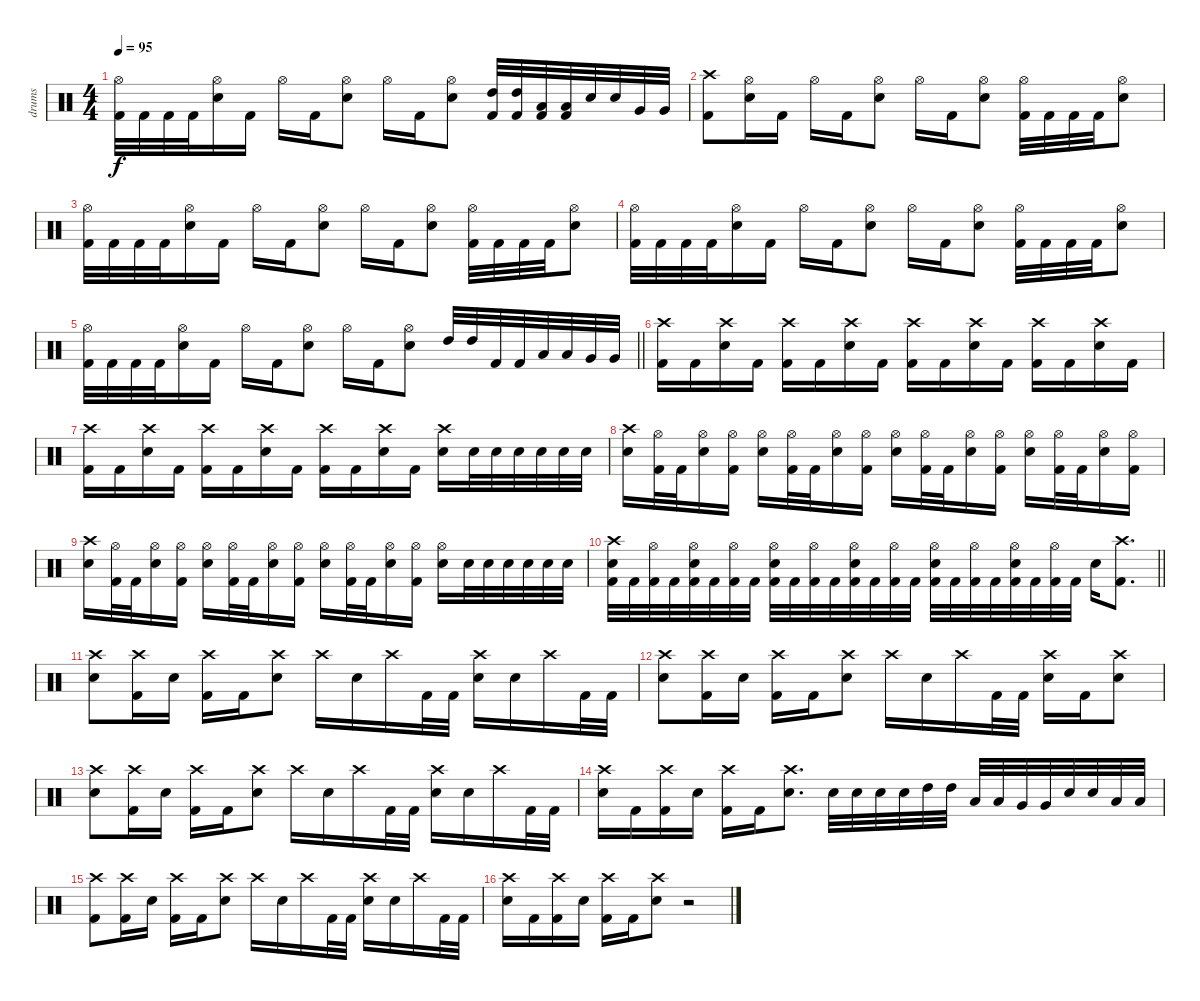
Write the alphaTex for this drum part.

\track ("drums" "drums") {instrument percussion}
\staff {score}
\articulation defaults
\ts (4 4)
\tempo 95
\clef neutral
\ks c
("Hi-Hat (open)" "Kick (hit) 2").32{dy f} "Kick (hit) 2".32 "Kick (hit) 2".32 "Kick (hit) 2".32 ("Hi-Hat (open)" "Electric Snare (hit)").16 "Kick (hit) 2".16 "Hi-Hat (open)".16 "Kick (hit) 2".16 ("Hi-Hat (open)" "Electric Snare (hit)").8 "Hi-Hat (open)".16 "Kick (hit) 2".16 ("Hi-Hat (open)" "Electric Snare (hit)").8 ("High Tom (hit)" "Kick (hit) 2").32 ("High Tom (hit)" "Kick (hit) 2").32 ("Low Tom (hit)" "Kick (hit) 2").32 ("Low Tom (hit)" "Kick (hit) 2").32 "Electric Snare (hit)".32 "Electric Snare (hit)".32 "Very Low Tom (hit)".32 "Very Low Tom (hit)".32 |
("Crash high (hit)" "Kick (hit) 2").8 ("Hi-Hat (open)" "Electric Snare (hit)").16 "Kick (hit) 2".16 "Hi-Hat (open)".16 "Kick (hit) 2".16 ("Hi-Hat (open)" "Electric Snare (hit)").8 "Hi-Hat (open)".16 "Kick (hit) 2".16 ("Hi-Hat (open)" "Electric Snare (hit)").8 ("Hi-Hat (open)" "Kick (hit) 2").32 "Kick (hit) 2".32 "Kick (hit) 2".32 "Kick (hit) 2".32 ("Hi-Hat (open)" "Electric Snare (hit)").8 |
("Hi-Hat (open)" "Kick (hit) 2").32 "Kick (hit) 2".32 "Kick (hit) 2".32 "Kick (hit) 2".32 ("Hi-Hat (open)" "Electric Snare (hit)").16 "Kick (hit) 2".16 "Hi-Hat (open)".16 "Kick (hit) 2".16 ("Hi-Hat (open)" "Electric Snare (hit)").8 "Hi-Hat (open)".16 "Kick (hit) 2".16 ("Hi-Hat (open)" "Electric Snare (hit)").8 ("Hi-Hat (open)" "Kick (hit) 2").32 "Kick (hit) 2".32 "Kick (hit) 2".32 "Kick (hit) 2".32 ("Hi-Hat (open)" "Electric Snare (hit)").8 |
("Hi-Hat (open)" "Kick (hit) 2").32 "Kick (hit) 2".32 "Kick (hit) 2".32 "Kick (hit) 2".32 ("Hi-Hat (open)" "Electric Snare (hit)").16 "Kick (hit) 2".16 "Hi-Hat (open)".16 "Kick (hit) 2".16 ("Hi-Hat (open)" "Electric Snare (hit)").8 "Hi-Hat (open)".16 "Kick (hit) 2".16 ("Hi-Hat (open)" "Electric Snare (hit)").8 ("Hi-Hat (open)" "Kick (hit) 2").32 "Kick (hit) 2".32 "Kick (hit) 2".32 "Kick (hit) 2".32 ("Hi-Hat (open)" "Electric Snare (hit)").8 |
\barLineRight lightlight
("Hi-Hat (open)" "Kick (hit) 2").32 "Kick (hit) 2".32 "Kick (hit) 2".32 "Kick (hit) 2".32 ("Hi-Hat (open)" "Electric Snare (hit)").16 "Kick (hit) 2".16 "Hi-Hat (open)".16 "Kick (hit) 2".16 ("Hi-Hat (open)" "Electric Snare (hit)").8 "Hi-Hat (open)".16 "Kick (hit) 2".16 ("Hi-Hat (open)" "Electric Snare (hit)").8 "High Tom (hit)".32 "High Tom (hit)".32 "Kick (hit) 2".32 "Kick (hit) 2".32 "Low Tom (hit)".32 "Low Tom (hit)".32 "Very Low Tom (hit)".32 "Very Low Tom (hit)".32 |
\section ("" "")
("Crash high (hit)" "Kick (hit) 2").16 "Kick (hit) 2".16 ("Crash high (hit)" "Electric Snare (hit)").16 "Kick (hit) 2".16 ("Crash high (hit)" "Kick (hit) 2").16 "Kick (hit) 2".16 ("Crash high (hit)" "Electric Snare (hit)").16 "Kick (hit) 2".16 ("Crash high (hit)" "Kick (hit) 2").16 "Kick (hit) 2".16 ("Crash high (hit)" "Electric Snare (hit)").16 "Kick (hit) 2".16 ("Crash high (hit)" "Kick (hit) 2").16 "Kick (hit) 2".16 ("Crash high (hit)" "Electric Snare (hit)").16 "Kick (hit) 2".16 |
("Crash high (hit)" "Kick (hit) 2").16 "Kick (hit) 2".16 ("Crash high (hit)" "Electric Snare (hit)").16 "Kick (hit) 2".16 ("Crash high (hit)" "Kick (hit) 2").16 "Kick (hit) 2".16 ("Crash high (hit)" "Electric Snare (hit)").16 "Kick (hit) 2".16 ("Crash high (hit)" "Kick (hit) 2").16 "Kick (hit) 2".16 ("Crash high (hit)" "Electric Snare (hit)").16 "Kick (hit) 2".16 ("Crash high (hit)" "Electric Snare (hit)").16 "Electric Snare (hit)".32 "Electric Snare (hit)".32 "Electric Snare (hit)".32 "Electric Snare (hit)".32 "Electric Snare (hit)".32 "Electric Snare (hit)".32 |
("Crash high (hit)" "Electric Snare (hit)").16 ("Hi-Hat (open)" "Kick (hit) 2").32 "Kick (hit) 2".32 ("Hi-Hat (open)" "Electric Snare (hit)").16 ("Hi-Hat (open)" "Kick (hit) 2").16 ("Hi-Hat (open)" "Electric Snare (hit)").16 ("Hi-Hat (open)" "Kick (hit) 2").32 "Kick (hit) 2".32 ("Hi-Hat (open)" "Electric Snare (hit)").16 ("Hi-Hat (open)" "Kick (hit) 2").16 ("Hi-Hat (open)" "Electric Snare (hit)").16 ("Hi-Hat (open)" "Kick (hit) 2").32 "Kick (hit) 2".32 ("Hi-Hat (open)" "Electric Snare (hit)").16 ("Hi-Hat (open)" "Kick (hit) 2").16 ("Hi-Hat (open)" "Electric Snare (hit)").16 ("Hi-Hat (open)" "Kick (hit) 2").32 "Kick (hit) 2".32 ("Hi-Hat (open)" "Electric Snare (hit)").16 ("Hi-Hat (open)" "Kick (hit) 2").16 |
("Crash high (hit)" "Electric Snare (hit)").16 ("Hi-Hat (open)" "Kick (hit) 2").32 "Kick (hit) 2".32 ("Hi-Hat (open)" "Electric Snare (hit)").16 ("Hi-Hat (open)" "Kick (hit) 2").16 ("Hi-Hat (open)" "Electric Snare (hit)").16 ("Hi-Hat (open)" "Kick (hit) 2").32 "Kick (hit) 2".32 ("Hi-Hat (open)" "Electric Snare (hit)").16 ("Hi-Hat (open)" "Kick (hit) 2").16 ("Hi-Hat (open)" "Electric Snare (hit)").16 ("Hi-Hat (open)" "Kick (hit) 2").32 "Kick (hit) 2".32 ("Hi-Hat (open)" "Electric Snare (hit)").16 ("Hi-Hat (open)" "Kick (hit) 2").16 ("Hi-Hat (open)" "Electric Snare (hit)").16 "Electric Snare (hit)".32 "Electric Snare (hit)".32 "Electric Snare (hit)".32 "Electric Snare (hit)".32 "Electric Snare (hit)".32 "Electric Snare (hit)".32 |
\barLineRight lightlight
("Crash high (hit)" "Electric Snare (hit)" "Kick (hit) 2").32 "Kick (hit) 2".32 ("Hi-Hat (open)" "Kick (hit) 2").32 "Kick (hit) 2".32 ("Hi-Hat (open)" "Electric Snare (hit)" "Kick (hit) 2").32 "Kick (hit) 2".32 ("Hi-Hat (open)" "Kick (hit) 2").32 "Kick (hit) 2".32 ("Hi-Hat (open)" "Electric Snare (hit)" "Kick (hit) 2").32 "Kick (hit) 2".32 ("Hi-Hat (open)" "Kick (hit) 2").32 "Kick (hit) 2".32 ("Hi-Hat (open)" "Electric Snare (hit)" "Kick (hit) 2").32 "Kick (hit) 2".32 ("Hi-Hat (open)" "Kick (hit) 2").32 "Kick (hit) 2".32 ("Hi-Hat (open)" "Electric Snare (hit)" "Kick (hit) 2").32 "Kick (hit) 2".32 ("Hi-Hat (open)" "Kick (hit) 2").32 "Kick (hit) 2".32 ("Hi-Hat (open)" "Electric Snare (hit)" "Kick (hit) 2").32 "Kick (hit) 2".32 ("Hi-Hat (open)" "Kick (hit) 2").32 "Kick (hit) 2".32 "Electric Snare (hit)".16 ("Crash high (hit)" "Kick (hit) 2").8{d} |
\section ("" "")
("Crash high (hit)" "Electric Snare (hit)").8 ("Crash high (hit)" "Kick (hit) 2").16 "Electric Snare (hit)".16 ("Crash high (hit)" "Kick (hit) 2").16 "Kick (hit) 2".16 ("Crash high (hit)" "Electric Snare (hit)").8 "Crash high (hit)".16 "Electric Snare (hit)".16 "Crash high (hit)".16 "Kick (hit) 2".32 "Kick (hit) 2".32 ("Crash high (hit)" "Electric Snare (hit)").16 "Electric Snare (hit)".16 "Crash high (hit)".16 "Kick (hit) 2".32 "Kick (hit) 2".32 |
("Crash high (hit)" "Electric Snare (hit)").8 ("Crash high (hit)" "Kick (hit) 2").16 "Electric Snare (hit)".16 ("Crash high (hit)" "Kick (hit) 2").16 "Kick (hit) 2".16 ("Crash high (hit)" "Electric Snare (hit)").8 "Crash high (hit)".16 "Electric Snare (hit)".16 "Crash high (hit)".16 "Kick (hit) 2".32 "Kick (hit) 2".32 ("Crash high (hit)" "Electric Snare (hit)").16 "Kick (hit) 2".16 ("Crash high (hit)" "Electric Snare (hit)").8 |
("Crash high (hit)" "Electric Snare (hit)").8 ("Crash high (hit)" "Kick (hit) 2").16 "Electric Snare (hit)".16 ("Crash high (hit)" "Kick (hit) 2").16 "Kick (hit) 2".16 ("Crash high (hit)" "Electric Snare (hit)").8 "Crash high (hit)".16 "Electric Snare (hit)".16 "Crash high (hit)".16 "Kick (hit) 2".32 "Kick (hit) 2".32 ("Crash high (hit)" "Electric Snare (hit)").16 "Electric Snare (hit)".16 "Crash high (hit)".16 "Kick (hit) 2".32 "Kick (hit) 2".32 |
("Crash high (hit)" "Electric Snare (hit)").16 "Kick (hit) 2".16 ("Crash high (hit)" "Kick (hit) 2").16 "Electric Snare (hit)".16 ("Crash high (hit)" "Kick (hit) 2").16 "Kick (hit) 2".16 ("Crash high (hit)" "Electric Snare (hit)").8{d} "Electric Snare (hit)".32 "Electric Snare (hit)".32 "Electric Snare (hit)".32 "Electric Snare (hit)".32 "High Tom (hit)".32 "High Tom (hit)".32 "Low Tom (hit)".32 "Low Tom (hit)".32 "Very Low Tom (hit)".32 "Very Low Tom (hit)".32 "Electric Snare (hit)".32 "Electric Snare (hit)".32 "Low Tom (hit)".32 "Low Tom (hit)".32 |
("Crash high (hit)" "Kick (hit) 2").8 ("Crash high (hit)" "Kick (hit) 2").16 "Electric Snare (hit)".16 ("Crash high (hit)" "Kick (hit) 2").16 "Kick (hit) 2".16 ("Crash high (hit)" "Electric Snare (hit)").8 "Crash high (hit)".16 "Electric Snare (hit)".16 "Crash high (hit)".16 "Kick (hit) 2".32 "Kick (hit) 2".32 ("Crash high (hit)" "Electric Snare (hit)").16 "Electric Snare (hit)".16 "Crash high (hit)".16 "Kick (hit) 2".32 "Kick (hit) 2".32 |
("Crash high (hit)" "Electric Snare (hit)").16 "Kick (hit) 2".16 ("Crash high (hit)" "Kick (hit) 2").16 "Electric Snare (hit)".16 ("Crash high (hit)" "Kick (hit) 2").16 "Kick (hit) 2".16 ("Crash high (hit)" "Electric Snare (hit)").8 r.2
